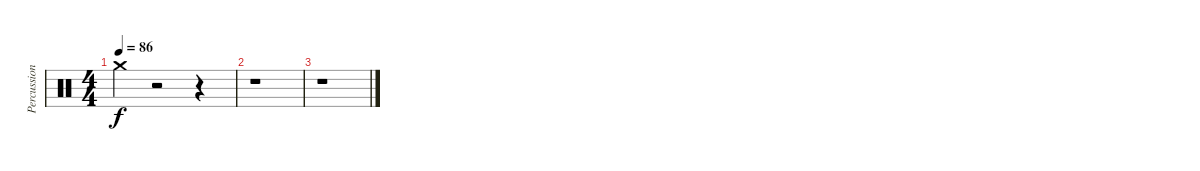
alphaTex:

\track ("Percussions" "Percussion") {instrument percussion}
\staff {score}
\articulation defaults
\ts (4 4)
\tempo 86
\clef neutral
\ks c "Crash medium (hit)".4{dy f}
r.2 r.4 |
r.1 |
r.1
